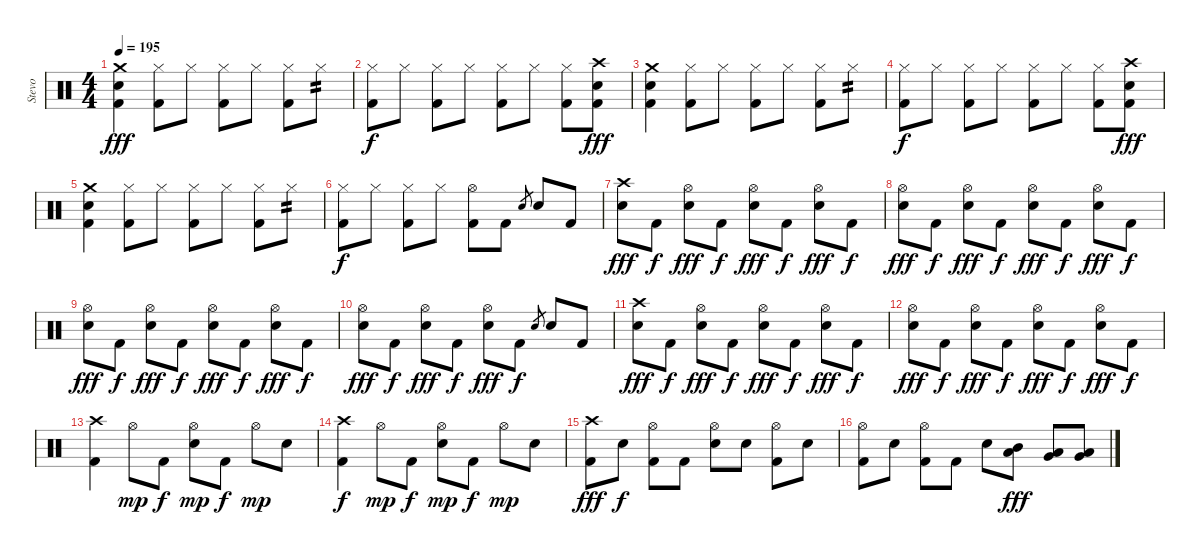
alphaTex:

\track ("Stevo" "Stevo") {instrument percussion}
\staff {score}
\articulation defaults
\ts (4 4)
\tempo 195
\clef neutral
\ks c
("Crash medium (hit)" "Electric Snare (hit)" "Kick (hit) 2").4{dy fff} ("Hi-Hat (closed)" "Kick (hit) 2").8 "Hi-Hat (closed)".8 ("Hi-Hat (closed)" "Kick (hit) 2").8 "Hi-Hat (closed)".8 ("Hi-Hat (closed)" "Kick (hit) 2").8 "Hi-Hat (closed)".8{tp 2} |
("Hi-Hat (closed)" "Kick (hit) 2").8{dy f} "Hi-Hat (closed)".8 ("Hi-Hat (closed)" "Kick (hit) 2").8 "Hi-Hat (closed)".8 ("Hi-Hat (closed)" "Kick (hit) 2").8 "Hi-Hat (closed)".8 ("Hi-Hat (closed)" "Kick (hit) 2").8 ("Crash high (hit)" "Electric Snare (hit)" "Kick (hit) 2").8{dy fff} |
("Crash medium (hit)" "Electric Snare (hit)" "Kick (hit) 2").4 ("Hi-Hat (closed)" "Kick (hit) 2").8 "Hi-Hat (closed)".8 ("Hi-Hat (closed)" "Kick (hit) 2").8 "Hi-Hat (closed)".8 ("Hi-Hat (closed)" "Kick (hit) 2").8 "Hi-Hat (closed)".8{tp 2} |
("Hi-Hat (closed)" "Kick (hit) 2").8{dy f} "Hi-Hat (closed)".8 ("Hi-Hat (closed)" "Kick (hit) 2").8 "Hi-Hat (closed)".8 ("Hi-Hat (closed)" "Kick (hit) 2").8 "Hi-Hat (closed)".8 ("Hi-Hat (closed)" "Kick (hit) 2").8 ("Crash high (hit)" "Electric Snare (hit)" "Kick (hit) 2").8{dy fff} |
("Crash medium (hit)" "Electric Snare (hit)" "Kick (hit) 2").4 ("Hi-Hat (closed)" "Kick (hit) 2").8 "Hi-Hat (closed)".8 ("Hi-Hat (closed)" "Kick (hit) 2").8 "Hi-Hat (closed)".8 ("Hi-Hat (closed)" "Kick (hit) 2").8 "Hi-Hat (closed)".8{tp 2} |
("Hi-Hat (closed)" "Kick (hit) 2").8{dy f} "Hi-Hat (closed)".8 ("Hi-Hat (closed)" "Kick (hit) 2").8 "Hi-Hat (closed)".8 ("Hi-Hat (open)" "Kick (hit) 2").8 "Kick (hit) 2".8 "Electric Snare (hit)".8{gr} "Electric Snare (hit)".8 "Kick (hit) 2".8 |
("Crash high (hit)" "Electric Snare (hit)").8{dy fff} "Kick (hit) 2".8{dy f} ("Hi-Hat (open)" "Electric Snare (hit)").8{dy fff} "Kick (hit) 2".8{dy f} ("Hi-Hat (open)" "Electric Snare (hit)").8{dy fff} "Kick (hit) 2".8{dy f} ("Hi-Hat (open)" "Electric Snare (hit)").8{dy fff} "Kick (hit) 2".8{dy f} |
("Hi-Hat (open)" "Electric Snare (hit)").8{dy fff} "Kick (hit) 2".8{dy f} ("Hi-Hat (open)" "Electric Snare (hit)").8{dy fff} "Kick (hit) 2".8{dy f} ("Hi-Hat (open)" "Electric Snare (hit)").8{dy fff} "Kick (hit) 2".8{dy f} ("Hi-Hat (open)" "Electric Snare (hit)").8{dy fff} "Kick (hit) 2".8{dy f} |
("Hi-Hat (open)" "Electric Snare (hit)").8{dy fff} "Kick (hit) 2".8{dy f} ("Hi-Hat (open)" "Electric Snare (hit)").8{dy fff} "Kick (hit) 2".8{dy f} ("Hi-Hat (open)" "Electric Snare (hit)").8{dy fff} "Kick (hit) 2".8{dy f} ("Hi-Hat (open)" "Electric Snare (hit)").8{dy fff} "Kick (hit) 2".8{dy f} |
("Hi-Hat (open)" "Electric Snare (hit)").8{dy fff} "Kick (hit) 2".8{dy f} ("Hi-Hat (open)" "Electric Snare (hit)").8{dy fff} "Kick (hit) 2".8{dy f} ("Hi-Hat (open)" "Electric Snare (hit)").8{dy fff} "Kick (hit) 2".8{dy f} "Electric Snare (hit)".8{gr} "Electric Snare (hit)".8 "Kick (hit) 2".8 |
("Crash high (hit)" "Electric Snare (hit)").8{dy fff} "Kick (hit) 2".8{dy f} ("Hi-Hat (open)" "Electric Snare (hit)").8{dy fff} "Kick (hit) 2".8{dy f} ("Hi-Hat (open)" "Electric Snare (hit)").8{dy fff} "Kick (hit) 2".8{dy f} ("Hi-Hat (open)" "Electric Snare (hit)").8{dy fff} "Kick (hit) 2".8{dy f} |
("Hi-Hat (open)" "Electric Snare (hit)").8{dy fff} "Kick (hit) 2".8{dy f} ("Hi-Hat (open)" "Electric Snare (hit)").8{dy fff} "Kick (hit) 2".8{dy f} ("Hi-Hat (open)" "Electric Snare (hit)").8{dy fff} "Kick (hit) 2".8{dy f} ("Hi-Hat (open)" "Electric Snare (hit)").8{dy fff} "Kick (hit) 2".8{dy f} |
("Crash high (hit)" "Kick (hit) 2").4 "Hi-Hat (open)".8{dy mp} "Kick (hit) 2".8{dy f} ("Hi-Hat (open)" "Electric Snare (hit)").8{dy mp} "Kick (hit) 2".8{dy f} "Hi-Hat (open)".8{dy mp} "Electric Snare (hit)".8 |
("Crash high (hit)" "Kick (hit) 2").4{dy f} "Hi-Hat (open)".8{dy mp} "Kick (hit) 2".8{dy f} ("Hi-Hat (open)" "Electric Snare (hit)").8{dy mp} "Kick (hit) 2".8{dy f} "Hi-Hat (open)".8{dy mp} "Electric Snare (hit)".8 |
("Crash high (hit)" "Kick (hit) 2").8{dy fff} "Electric Snare (hit)".8{dy f} ("Hi-Hat (open)" "Kick (hit) 2").8 "Kick (hit) 2".8 ("Hi-Hat (open)" "Electric Snare (hit)").8 "Electric Snare (hit)".8 ("Hi-Hat (open)" "Kick (hit) 2").8 "Electric Snare (hit)".8 |
("Hi-Hat (open)" "Kick (hit) 2").8 "Electric Snare (hit)".8 ("Hi-Hat (open)" "Kick (hit) 2").8 "Kick (hit) 2".8 "Electric Snare (hit)".8 ("Mid Tom (hit)" "Low Tom (hit)").8{dy fff} ("Low Tom (hit)" "Very Low Tom (hit)").8 ("Very Low Tom (hit)" "Low Floor Tom (hit)").8
